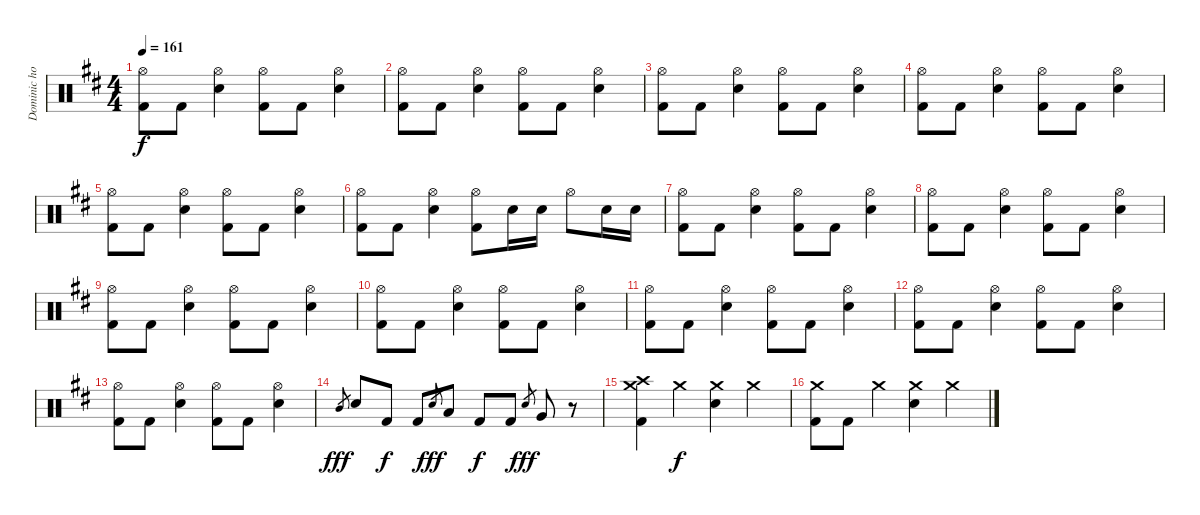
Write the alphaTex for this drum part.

\track ("Dominic howard" "Dominic ho") {instrument percussion}
\staff {score}
\articulation defaults
\ts (4 4)
\tempo 161
\clef neutral
\ks d
("Hi-Hat (open)" "Kick (hit) 2").8{dy f} "Kick (hit) 2".8 ("Hi-Hat (open)" "Electric Snare (hit)").4 ("Hi-Hat (open)" "Kick (hit) 2").8 "Kick (hit) 2".8 ("Hi-Hat (open)" "Electric Snare (hit)").4 |
("Hi-Hat (open)" "Kick (hit) 2").8 "Kick (hit) 2".8 ("Hi-Hat (open)" "Electric Snare (hit)").4 ("Hi-Hat (open)" "Kick (hit) 2").8 "Kick (hit) 2".8 ("Hi-Hat (open)" "Electric Snare (hit)").4 |
("Hi-Hat (open)" "Kick (hit) 2").8 "Kick (hit) 2".8 ("Hi-Hat (open)" "Electric Snare (hit)").4 ("Hi-Hat (open)" "Kick (hit) 2").8 "Kick (hit) 2".8 ("Hi-Hat (open)" "Electric Snare (hit)").4 |
("Hi-Hat (open)" "Kick (hit) 2").8 "Kick (hit) 2".8 ("Hi-Hat (open)" "Electric Snare (hit)").4 ("Hi-Hat (open)" "Kick (hit) 2").8 "Kick (hit) 2".8 ("Hi-Hat (open)" "Electric Snare (hit)").4 |
("Hi-Hat (open)" "Kick (hit) 2").8 "Kick (hit) 2".8 ("Hi-Hat (open)" "Electric Snare (hit)").4 ("Hi-Hat (open)" "Kick (hit) 2").8 "Kick (hit) 2".8 ("Hi-Hat (open)" "Electric Snare (hit)").4 |
("Hi-Hat (open)" "Kick (hit) 2").8 "Kick (hit) 2".8 ("Hi-Hat (open)" "Electric Snare (hit)").4 ("Hi-Hat (open)" "Kick (hit) 2").8 "Electric Snare (hit)".16 "Electric Snare (hit)".16 "Hi-Hat (open)".8 "Electric Snare (hit)".16 "Electric Snare (hit)".16 |
("Hi-Hat (open)" "Kick (hit) 2").8 "Kick (hit) 2".8 ("Hi-Hat (open)" "Electric Snare (hit)").4 ("Hi-Hat (open)" "Kick (hit) 2").8 "Kick (hit) 2".8 ("Hi-Hat (open)" "Electric Snare (hit)").4 |
("Hi-Hat (open)" "Kick (hit) 2").8 "Kick (hit) 2".8 ("Hi-Hat (open)" "Electric Snare (hit)").4 ("Hi-Hat (open)" "Kick (hit) 2").8 "Kick (hit) 2".8 ("Hi-Hat (open)" "Electric Snare (hit)").4 |
("Hi-Hat (open)" "Kick (hit) 2").8 "Kick (hit) 2".8 ("Hi-Hat (open)" "Electric Snare (hit)").4 ("Hi-Hat (open)" "Kick (hit) 2").8 "Kick (hit) 2".8 ("Hi-Hat (open)" "Electric Snare (hit)").4 |
("Hi-Hat (open)" "Kick (hit) 2").8 "Kick (hit) 2".8 ("Hi-Hat (open)" "Electric Snare (hit)").4 ("Hi-Hat (open)" "Kick (hit) 2").8 "Kick (hit) 2".8 ("Hi-Hat (open)" "Electric Snare (hit)").4 |
("Hi-Hat (open)" "Kick (hit) 2").8 "Kick (hit) 2".8 ("Hi-Hat (open)" "Electric Snare (hit)").4 ("Hi-Hat (open)" "Kick (hit) 2").8 "Kick (hit) 2".8 ("Hi-Hat (open)" "Electric Snare (hit)").4 |
("Hi-Hat (open)" "Kick (hit) 2").8 "Kick (hit) 2".8 ("Hi-Hat (open)" "Electric Snare (hit)").4 ("Hi-Hat (open)" "Kick (hit) 2").8 "Kick (hit) 2".8 ("Hi-Hat (open)" "Electric Snare (hit)").4 |
("Hi-Hat (open)" "Kick (hit) 2").8 "Kick (hit) 2".8 ("Hi-Hat (open)" "Electric Snare (hit)").4 ("Hi-Hat (open)" "Kick (hit) 2").8 "Kick (hit) 2".8 ("Hi-Hat (open)" "Electric Snare (hit)").4 |
"Mid Tom (hit)".8{gr dy fff} "Electric Snare (hit)".8 "Kick (hit) 2".8{dy f} "Kick (hit) 2".8 "Electric Snare (hit)".8{gr dy fff} "Low Tom (hit)".8 "Kick (hit) 2".8{dy f} "Kick (hit) 2".8 "Electric Snare (hit)".8{gr dy fff} "Very Low Tom (hit)".8 r.8 |
("Crash medium (hit)" "Crash high (hit)" "Kick (hit) 2").4 "Crash medium (hit)".4{dy f} ("Crash medium (hit)" "Electric Snare (hit)").4 "Crash medium (hit)".4 |
("Crash medium (hit)" "Kick (hit) 2").8 "Kick (hit) 2".8 "Crash medium (hit)".4 ("Crash medium (hit)" "Electric Snare (hit)").4 "Crash medium (hit)".4
